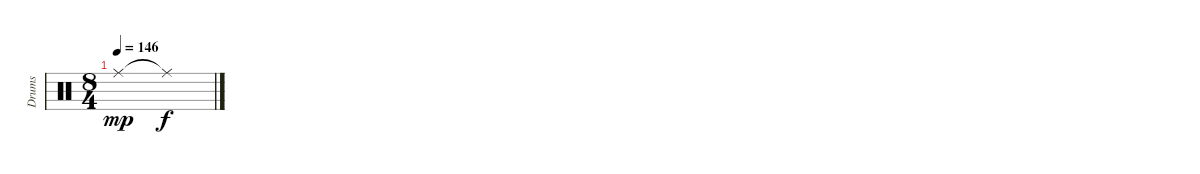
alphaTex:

\track ("Drums" "Drums") {instrument percussion}
\staff {score}
\articulation defaults
\ts (8 4)
\tempo 146
\clef neutral
\ks c "Ride (middle)".1{dy mp} "Ride (middle)"{t}.1{dy f}
